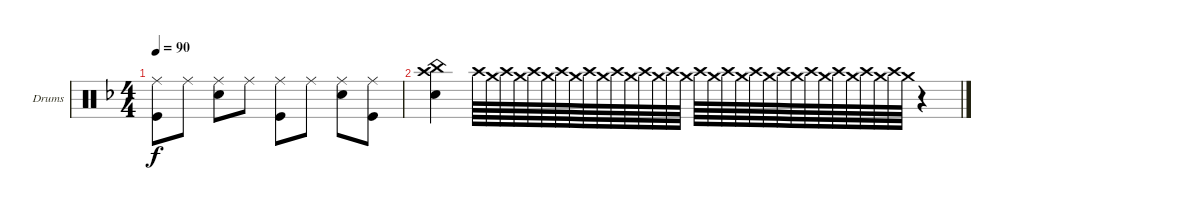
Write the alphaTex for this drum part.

\bracketExtendMode groupsimilarinstruments
\firstSystemTrackNameOrientation horizontal
\otherSystemsTrackNameOrientation horizontal
\track ("Drumkit" "Drums") {instrument percussion}
\staff {score}
\articulation defaults
\ts (4 4)
\tempo 90
\clef neutral
\ks f
("Ride (middle)" "Kick (hit)").8{dy f} "Ride (middle)".8 ("Ride (middle)" "Snare (hit) 2").8 "Ride (middle)".8 ("Ride (middle)" "Kick (hit)").8 "Ride (middle)".8 ("Ride (middle)" "Snare (hit) 2").8 ("Kick (hit)" "Ride (middle)").8 |
("Crash high (hit)" "Snare (hit) 2" "China (hit)").4 "Crash high (hit)".64 "Crash medium (hit)".64 "Crash high (hit)".64 "Crash medium (hit)".64 "Crash high (hit)".64 "Crash medium (hit)".64 "Crash high (hit)".64 "Crash medium (hit)".64 "Crash high (hit)".64 "Crash medium (hit)".64 "Crash high (hit)".64 "Crash medium (hit)".64 "Crash high (hit)".64 "Crash medium (hit)".64 "Crash high (hit)".64 "Crash medium (hit)".64 "Crash high (hit)".64 "Crash medium (hit)".64 "Crash high (hit)".64 "Crash medium (hit)".64 "Crash high (hit)".64 "Crash medium (hit)".64 "Crash high (hit)".64 "Crash medium (hit)".64 "Crash high (hit)".64 "Crash medium (hit)".64 "Crash high (hit)".64 "Crash medium (hit)".64 "Crash high (hit)".64 "Crash medium (hit)".64 "Crash high (hit)".64 "Crash medium (hit)".64 r.4
